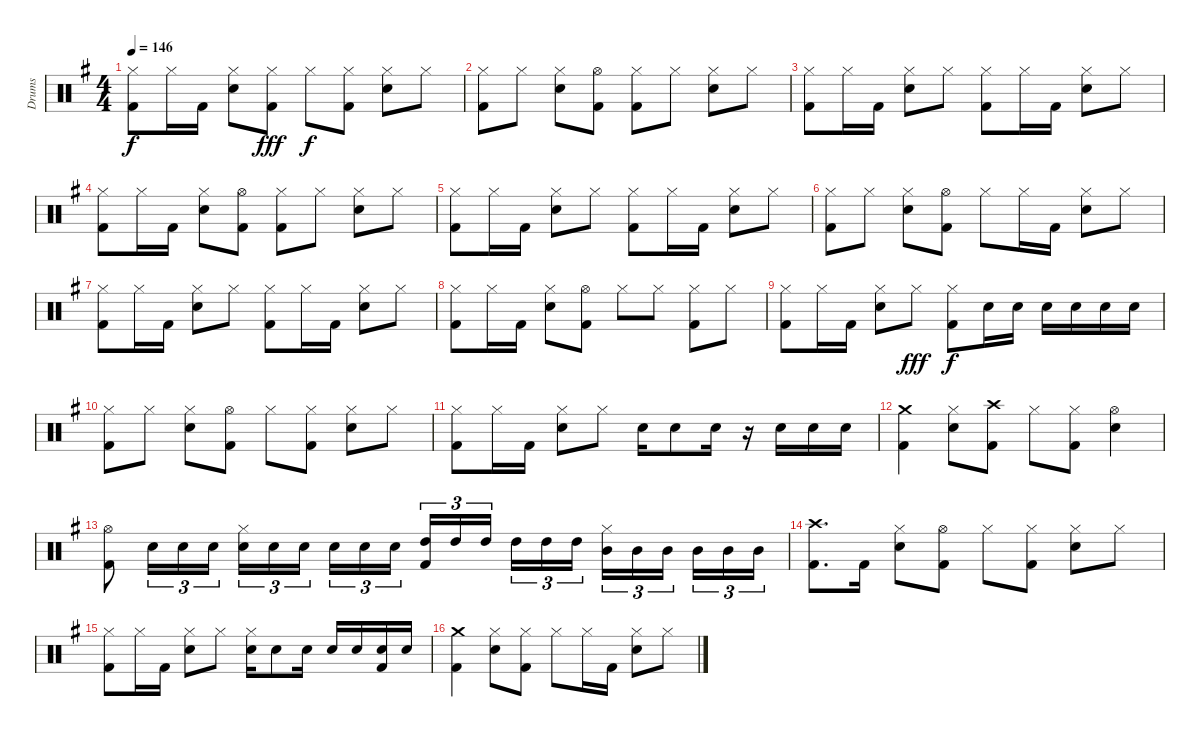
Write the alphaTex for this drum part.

\track ("Drums" "Drums") {instrument percussion}
\staff {score}
\articulation defaults
\ts (4 4)
\tempo 146
\clef neutral
\ks g
("Kick (hit) 2" "Hi-Hat (closed)").8{dy f} "Hi-Hat (closed)".16 "Kick (hit) 2".16 ("Snare (hit) 2" "Hi-Hat (closed)").8 ("Kick (hit) 2" "Hi-Hat (closed)").8{dy fff} "Hi-Hat (closed)".8{dy f} ("Kick (hit) 2" "Hi-Hat (closed)").8 ("Snare (hit) 2" "Hi-Hat (closed)").8 "Hi-Hat (closed)".8 |
("Kick (hit) 2" "Hi-Hat (closed)").8 "Hi-Hat (closed)".8 ("Snare (hit) 2" "Hi-Hat (closed)").8 ("Kick (hit) 2" "Hi-Hat (open)").8 ("Kick (hit) 2" "Hi-Hat (closed)").8 "Hi-Hat (closed)".8 ("Snare (hit) 2" "Hi-Hat (closed)").8 "Hi-Hat (closed)".8 |
("Kick (hit) 2" "Hi-Hat (closed)").8 "Hi-Hat (closed)".16 "Kick (hit) 2".16 ("Snare (hit) 2" "Hi-Hat (closed)").8 "Hi-Hat (closed)".8 ("Kick (hit) 2" "Hi-Hat (closed)").8 "Hi-Hat (closed)".16 "Kick (hit) 2".16 ("Snare (hit) 2" "Hi-Hat (closed)").8 "Hi-Hat (closed)".8 |
("Kick (hit) 2" "Hi-Hat (closed)").8 "Hi-Hat (closed)".16 "Kick (hit) 2".16 ("Snare (hit) 2" "Hi-Hat (closed)").8 ("Kick (hit) 2" "Hi-Hat (open)").8 ("Kick (hit) 2" "Hi-Hat (closed)").8 "Hi-Hat (closed)".8 ("Snare (hit) 2" "Hi-Hat (closed)").8 "Hi-Hat (closed)".8 |
("Kick (hit) 2" "Hi-Hat (closed)").8 "Hi-Hat (closed)".16 "Kick (hit) 2".16 ("Snare (hit) 2" "Hi-Hat (closed)").8 "Hi-Hat (closed)".8 ("Kick (hit) 2" "Hi-Hat (closed)").8 "Hi-Hat (closed)".16 "Kick (hit) 2".16 ("Snare (hit) 2" "Hi-Hat (closed)").8 "Hi-Hat (closed)".8 |
("Kick (hit) 2" "Hi-Hat (closed)").8 "Hi-Hat (closed)".8 ("Snare (hit) 2" "Hi-Hat (closed)").8 ("Kick (hit) 2" "Hi-Hat (open)").8 "Hi-Hat (closed)".8 "Hi-Hat (closed)".16 "Kick (hit) 2".16 ("Snare (hit) 2" "Hi-Hat (closed)").8 "Hi-Hat (closed)".8 |
("Kick (hit) 2" "Hi-Hat (closed)").8 "Hi-Hat (closed)".16 "Kick (hit) 2".16 ("Snare (hit) 2" "Hi-Hat (closed)").8 "Hi-Hat (closed)".8 ("Kick (hit) 2" "Hi-Hat (closed)").8 "Hi-Hat (closed)".16 "Kick (hit) 2".16 ("Snare (hit) 2" "Hi-Hat (closed)").8 "Hi-Hat (closed)".8 |
("Kick (hit) 2" "Hi-Hat (closed)").8 "Hi-Hat (closed)".16 "Kick (hit) 2".16 ("Snare (hit) 2" "Hi-Hat (closed)").8 ("Kick (hit) 2" "Hi-Hat (open)").8 "Hi-Hat (closed)".8 "Hi-Hat (closed)".8 ("Kick (hit) 2" "Hi-Hat (closed)").8 "Hi-Hat (closed)".8 |
("Kick (hit) 2" "Hi-Hat (closed)").8 "Hi-Hat (closed)".16 "Kick (hit) 2".16 ("Snare (hit) 2" "Hi-Hat (closed)").8 "Hi-Hat (closed)".8{dy fff} ("Kick (hit) 2" "Hi-Hat (closed)").8{dy f} "Snare (hit) 2".16 "Snare (hit) 2".16 "Snare (hit) 2".16 "Snare (hit) 2".16 "Snare (hit) 2".16 "Snare (hit) 2".16 |
("Kick (hit) 2" "Hi-Hat (closed)").8 "Hi-Hat (closed)".8 ("Snare (hit) 2" "Hi-Hat (closed)").8 ("Kick (hit) 2" "Hi-Hat (open)").8 "Hi-Hat (closed)".8 ("Kick (hit) 2" "Hi-Hat (closed)").8 ("Snare (hit) 2" "Hi-Hat (closed)").8 "Hi-Hat (closed)".8 |
("Kick (hit) 2" "Hi-Hat (closed)").8 "Hi-Hat (closed)".16 "Kick (hit) 2".16 ("Snare (hit) 2" "Hi-Hat (closed)").8 "Hi-Hat (closed)".8 "Snare (hit) 2".16 "Snare (hit) 2".8 "Snare (hit) 2".16 r.16 "Snare (hit) 2".16 "Snare (hit) 2".16 "Snare (hit) 2".16 |
("Kick (hit) 2" "Crash medium (hit)").4 ("Snare (hit) 2" "Hi-Hat (closed)").8 ("Kick (hit) 2" "Crash high (hit)").8 "Hi-Hat (closed)".8 ("Kick (hit) 2" "Hi-Hat (closed)").8 ("Snare (hit) 2" "Hi-Hat (open)").4 |
("Kick (hit) 2" "Hi-Hat (open)").8 "Snare (hit) 2".16{tu (3 2)} "Snare (hit) 2".16{tu (3 2)} "Snare (hit) 2".16{tu (3 2)} ("Snare (hit) 2" "Hi-Hat (closed)").16{tu (3 2)} "Snare (hit) 2".16{tu (3 2)} "Snare (hit) 2".16{tu (3 2)} "Snare (hit) 2".16{tu (3 2)} "Snare (hit) 2".16{tu (3 2)} "Snare (hit) 2".16{tu (3 2)} ("Kick (hit) 2" "High Tom (hit)").16{tu (3 2)} "High Tom (hit)".16{tu (3 2)} "High Tom (hit)".16{tu (3 2)} "High Tom (hit)".16{tu (3 2)} "High Tom (hit)".16{tu (3 2)} "High Tom (hit)".16{tu (3 2)} ("Hi-Hat (closed)" "Mid Tom (hit)").16{tu (3 2)} "Mid Tom (hit)".16{tu (3 2)} "Mid Tom (hit)".16{tu (3 2)} "Mid Tom (hit)".16{tu (3 2)} "Mid Tom (hit)".16{tu (3 2)} "Mid Tom (hit)".16{tu (3 2)} |
("Kick (hit) 2" "Crash high (hit)").8{d} "Kick (hit) 2".16 ("Snare (hit) 2" "Hi-Hat (closed)").8 ("Kick (hit) 2" "Hi-Hat (open)").8 "Hi-Hat (closed)".8 ("Kick (hit) 2" "Hi-Hat (closed)").8 ("Snare (hit) 2" "Hi-Hat (closed)").8 "Hi-Hat (closed)".8 |
("Kick (hit) 2" "Hi-Hat (closed)").8 "Hi-Hat (closed)".16 "Kick (hit) 2".16 ("Snare (hit) 2" "Hi-Hat (closed)").8 "Hi-Hat (closed)".8 ("Snare (hit) 2" "Hi-Hat (closed)").16 "Snare (hit) 2".8 "Snare (hit) 2".16 "Snare (hit) 2".16 "Snare (hit) 2".16 ("Kick (hit) 2" "Snare (hit) 2").16 "Snare (hit) 2".16 |
("Kick (hit) 2" "Crash medium (hit)").4 ("Snare (hit) 2" "Hi-Hat (closed)").8 ("Kick (hit) 2" "Hi-Hat (closed)").8 "Hi-Hat (closed)".8 "Hi-Hat (closed)".16 "Kick (hit) 2".16 ("Snare (hit) 2" "Hi-Hat (closed)").8 "Hi-Hat (closed)".8
